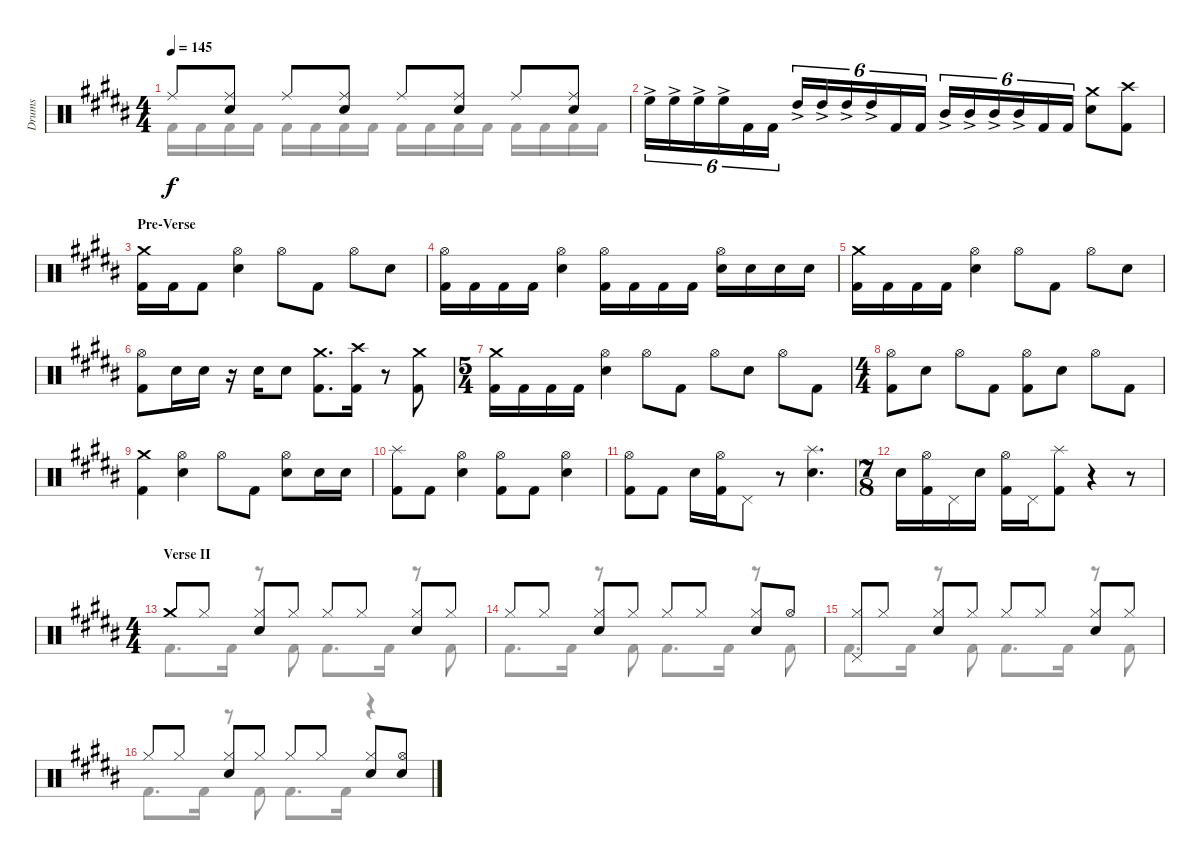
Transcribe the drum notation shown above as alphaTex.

\defaultSystemsLayout 4
\bracketExtendMode groupsimilarinstruments
\otherSystemsTrackNameOrientation horizontal
\track ("Drumkit" "Drums") {multiBarRest instrument percussion}
\staff {score}
\articulation defaults
\voice
\ts (4 4)
\tempo 145
\clef neutral
\ks b "Ride (middle)"{acc forcenatural}.8{dy f}
("Snare (hit) 2"{acc forcenatural} "Ride (middle)"{acc forcenatural}).8 "Ride (middle)"{acc forcenatural}.8 ("Snare (hit) 2"{acc forcenatural} "Ride (middle)"{acc forcenatural}).8 "Ride (middle)"{acc forcenatural}.8 ("Snare (hit) 2"{acc forcenatural} "Ride (middle)"{acc forcenatural}).8 "Ride (middle)"{acc forcenatural}.8 ("Snare (hit) 2"{acc forcenatural} "Ride (middle)"{acc forcenatural}).8 |
"High Floor Tom (hit)"{ac acc forcenatural}.16{tu (6 4)} "High Floor Tom (hit)"{ac acc forcenatural}.16{tu (6 4)} "High Floor Tom (hit)"{ac acc forcenatural}.16{tu (6 4)} "High Floor Tom (hit)"{ac acc forcenatural}.16{tu (6 4)} "Kick (hit) 2"{acc forcenatural}.16{tu (6 4)} "Kick (hit) 2"{acc forcenatural}.16{tu (6 4)} "High Tom (hit)"{ac acc forcenatural}.16{tu (6 4)} "High Tom (hit)"{ac acc forcenatural}.16{tu (6 4)} "High Tom (hit)"{ac acc forcenatural}.16{tu (6 4)} "High Tom (hit)"{ac acc forcenatural}.16{tu (6 4)} "Kick (hit) 2"{acc forcenatural}.16{tu (6 4)} "Kick (hit) 2"{acc forcenatural}.16{tu (6 4)} "Mid Tom (hit)"{ac acc forcenatural}.16{tu (6 4)} "Mid Tom (hit)"{ac acc forcenatural}.16{tu (6 4)} "Mid Tom (hit)"{ac acc forcenatural}.16{tu (6 4)} "Mid Tom (hit)"{ac acc forcenatural}.16{tu (6 4)} "Kick (hit) 2"{acc forcenatural}.16{tu (6 4)} "Kick (hit) 2"{acc forcenatural}.16{tu (6 4)} ("Snare (hit) 2"{acc forcenatural} "Crash medium (hit)"{acc forcenatural}).8 ("Crash high (hit)"{acc forcenatural} "Kick (hit) 2"{acc forcenatural}).8 |
\section ("" "Pre-Verse")
("Kick (hit) 2"{acc forcenatural} "Crash medium (hit)"{acc forcenatural}).16 "Kick (hit) 2"{acc forcenatural}.16 "Kick (hit) 2"{acc forcenatural}.8 ("Hi-Hat (open)"{acc forcenatural} "Snare (hit) 2"{acc forcenatural}).4 "Hi-Hat (open)"{acc forcenatural}.8 "Kick (hit) 2"{acc forcenatural}.8 "Hi-Hat (open)"{acc forcenatural}.8 "Snare (hit) 2"{acc forcenatural}.8 |
("Hi-Hat (open)"{acc forcenatural} "Kick (hit) 2"{acc forcenatural}).16 "Kick (hit) 2"{acc forcenatural}.16 "Kick (hit) 2"{acc forcenatural}.16 "Kick (hit) 2"{acc forcenatural}.16 ("Snare (hit) 2"{acc forcenatural} "Hi-Hat (open)"{acc forcenatural}).4 ("Kick (hit) 2"{acc forcenatural} "Hi-Hat (open)"{acc forcenatural}).16 "Kick (hit) 2"{acc forcenatural}.16 "Kick (hit) 2"{acc forcenatural}.16 "Kick (hit) 2"{acc forcenatural}.16 ("Snare (hit) 2"{acc forcenatural} "Hi-Hat (open)"{acc forcenatural}).16 "Snare (hit) 2"{acc forcenatural}.16 "Snare (hit) 2"{acc forcenatural}.16 "Snare (hit) 2"{acc forcenatural}.16 |
("Kick (hit) 2"{acc forcenatural} "Crash medium (hit)"{acc forcenatural}).16 "Kick (hit) 2"{acc forcenatural}.16 "Kick (hit) 2"{acc forcenatural}.16 "Kick (hit) 2"{acc forcenatural}.16 ("Hi-Hat (open)"{acc forcenatural} "Snare (hit) 2"{acc forcenatural}).4 "Hi-Hat (open)"{acc forcenatural}.8 "Kick (hit) 2"{acc forcenatural}.8 "Hi-Hat (open)"{acc forcenatural}.8 "Snare (hit) 2"{acc forcenatural}.8 |
("Hi-Hat (open)"{acc forcenatural} "Kick (hit) 2"{acc forcenatural}).8 "Snare (hit) 2"{acc forcenatural}.16 "Snare (hit) 2"{acc forcenatural}.16 r.16 "Snare (hit) 2"{acc forcenatural}.16 "Snare (hit) 2"{acc forcenatural}.8 ("Kick (hit) 2"{acc forcenatural} "Crash medium (hit)"{acc forcenatural}).8{d} ("Kick (hit) 2"{acc forcenatural} "Crash high (hit)"{acc forcenatural}).16 r.8 ("Kick (hit) 2"{acc forcenatural} "Crash medium (hit)"{acc forcenatural}).8 |
\ts (5 4)
\beaming (8 2 2 2 2 2)
("Kick (hit) 2"{acc forcenatural} "Crash medium (hit)"{acc forcenatural}).16 "Kick (hit) 2"{acc forcenatural}.16 "Kick (hit) 2"{acc forcenatural}.16 "Kick (hit) 2"{acc forcenatural}.16 ("Hi-Hat (open)"{acc forcenatural} "Snare (hit) 2"{acc forcenatural}).4 "Hi-Hat (open)"{acc forcenatural}.8 "Kick (hit) 2"{acc forcenatural}.8 "Hi-Hat (open)"{acc forcenatural}.8 "Snare (hit) 2"{acc forcenatural}.8 "Hi-Hat (open)"{acc forcenatural}.8 "Kick (hit) 2"{acc forcenatural}.8 |
\ts (4 4)
("Kick (hit) 2"{acc forcenatural} "Hi-Hat (open)"{acc forcenatural}).8 "Snare (hit) 2"{acc forcenatural}.8 "Hi-Hat (open)"{acc forcenatural}.8 "Kick (hit) 2"{acc forcenatural}.8 ("Kick (hit) 2"{acc forcenatural} "Hi-Hat (open)"{acc forcenatural}).8 "Snare (hit) 2"{acc forcenatural}.8 "Hi-Hat (open)"{acc forcenatural}.8 "Kick (hit) 2"{acc forcenatural}.8 |
("Crash medium (hit)"{acc forcenatural} "Kick (hit) 2"{acc forcenatural}).4 ("Hi-Hat (open)"{acc forcenatural} "Snare (hit) 2"{acc forcenatural}).4 "Hi-Hat (open)"{acc forcenatural}.8 "Kick (hit) 2"{acc forcenatural}.8 ("Hi-Hat (open)"{acc forcenatural} "Snare (hit) 2"{acc forcenatural}).8 "Snare (hit) 2"{acc forcenatural}.16 "Snare (hit) 2"{acc forcenatural}.16 |
("Kick (hit) 2"{acc forcenatural} "Splash (hit)"{acc forcenatural}).8 "Kick (hit) 2"{acc forcenatural}.8 ("Snare (hit) 2"{acc forcenatural} "Hi-Hat (open)"{acc forcenatural}).4 ("Kick (hit) 2"{acc forcenatural} "Hi-Hat (open)"{acc forcenatural}).8 "Kick (hit) 2"{acc forcenatural}.8 ("Snare (hit) 2"{acc forcenatural} "Hi-Hat (open)"{acc forcenatural}).4 |
("Kick (hit) 2"{acc forcenatural} "Hi-Hat (open)"{acc forcenatural}).8 "Kick (hit) 2"{acc forcenatural}.8 "Snare (hit) 2"{acc forcenatural}.16 ("Kick (hit) 2"{acc forcenatural} "Hi-Hat (open)"{acc forcenatural}).16 "Pedal Hi-Hat (hit)"{acc forcenatural}.8 r.8 ("Snare (hit) 2"{acc forcenatural} "Splash (hit)"{acc forcenatural}).4{d} |
\ts (7 8)
"Snare (hit) 2"{acc forcenatural}.16 ("Kick (hit) 2"{acc forcenatural} "Hi-Hat (open)"{acc forcenatural}).16 "Pedal Hi-Hat (hit)"{acc forcenatural}.16 "Snare (hit) 2"{acc forcenatural}.16 ("Kick (hit) 2"{acc forcenatural} "Hi-Hat (open)"{acc forcenatural}).16 "Pedal Hi-Hat (hit)"{acc forcenatural}.16 ("Kick (hit) 2"{acc forcenatural} "Splash (hit)"{acc forcenatural}).8 r.4 r.8 |
\ts (4 4)
\section ("" "Verse II")
"Crash medium (hit)"{acc forcenatural}.8 "Hi-Hat (closed)"{acc forcenatural}.8 ("Hi-Hat (closed)"{acc forcenatural} "Snare (hit) 2"{acc forcenatural}).8 "Hi-Hat (closed)"{acc forcenatural}.8 "Hi-Hat (closed)"{acc forcenatural}.8 "Hi-Hat (closed)"{acc forcenatural}.8 ("Hi-Hat (closed)"{acc forcenatural} "Snare (hit) 2"{acc forcenatural}).8 "Hi-Hat (closed)"{acc forcenatural}.8 |
"Hi-Hat (closed)"{acc forcenatural}.8 "Hi-Hat (closed)"{acc forcenatural}.8 ("Hi-Hat (closed)"{acc forcenatural} "Snare (hit) 2"{acc forcenatural}).8 "Hi-Hat (closed)"{acc forcenatural}.8 "Hi-Hat (closed)"{acc forcenatural}.8 "Hi-Hat (closed)"{acc forcenatural}.8 ("Hi-Hat (closed)"{acc forcenatural} "Snare (hit) 2"{acc forcenatural}).8 "Hi-Hat (open)"{acc forcenatural}.8 |
("Hi-Hat (closed)"{acc forcenatural} "Pedal Hi-Hat (hit)"{acc forcenatural}).8 "Hi-Hat (closed)"{acc forcenatural}.8 ("Hi-Hat (closed)"{acc forcenatural} "Snare (hit) 2"{acc forcenatural}).8 "Hi-Hat (closed)"{acc forcenatural}.8 "Hi-Hat (closed)"{acc forcenatural}.8 "Hi-Hat (closed)"{acc forcenatural}.8 ("Hi-Hat (closed)"{acc forcenatural} "Snare (hit) 2"{acc forcenatural}).8 "Hi-Hat (closed)"{acc forcenatural}.8 |
"Hi-Hat (closed)"{acc forcenatural}.8 "Hi-Hat (closed)"{acc forcenatural}.8 ("Hi-Hat (closed)"{acc forcenatural} "Snare (hit) 2"{acc forcenatural}).8 "Hi-Hat (closed)"{acc forcenatural}.8 "Hi-Hat (closed)"{acc forcenatural}.8 "Hi-Hat (closed)"{acc forcenatural}.8 ("Hi-Hat (closed)"{acc forcenatural} "Snare (hit) 2"{acc forcenatural}).8 ("Hi-Hat (open)"{acc forcenatural} "Snare (hit) 2"{acc forcenatural}).8
\voice
\clef neutral
\ottava regular
\simile none
\ks b "Kick (hit) 2"{acc forcenatural}.16{dy f} "Kick (hit) 2"{acc forcenatural}.16 "Kick (hit) 2"{acc forcenatural}.16 "Kick (hit) 2"{acc forcenatural}.16 "Kick (hit) 2"{acc forcenatural}.16 "Kick (hit) 2"{acc forcenatural}.16 "Kick (hit) 2"{acc forcenatural}.16 "Kick (hit) 2"{acc forcenatural}.16 "Kick (hit) 2"{acc forcenatural}.16 "Kick (hit) 2"{acc forcenatural}.16 "Kick (hit) 2"{acc forcenatural}.16 "Kick (hit) 2"{acc forcenatural}.16 "Kick (hit) 2"{acc forcenatural}.16 "Kick (hit) 2"{acc forcenatural}.16 "Kick (hit) 2"{acc forcenatural}.16 "Kick (hit) 2"{acc forcenatural}.16
|
|
|
|
|
|
|
|
|
|
|
|
"Kick (hit) 2"{acc forcenatural}.8{d} "Kick (hit) 2"{acc forcenatural}.16 r.8 "Kick (hit) 2"{acc forcenatural}.8 "Kick (hit) 2"{acc forcenatural}.8{d} "Kick (hit) 2"{acc forcenatural}.16 r.8 "Kick (hit) 2"{acc forcenatural}.8 |
"Kick (hit) 2"{acc forcenatural}.8{d} "Kick (hit) 2"{acc forcenatural}.16 r.8 "Kick (hit) 2"{acc forcenatural}.8 "Kick (hit) 2"{acc forcenatural}.8{d} "Kick (hit) 2"{acc forcenatural}.16 r.8 "Kick (hit) 2"{acc forcenatural}.8 |
"Kick (hit) 2"{acc forcenatural}.8{d} "Kick (hit) 2"{acc forcenatural}.16 r.8 "Kick (hit) 2"{acc forcenatural}.8 "Kick (hit) 2"{acc forcenatural}.8{d} "Kick (hit) 2"{acc forcenatural}.16 r.8 "Kick (hit) 2"{acc forcenatural}.8 |
"Kick (hit) 2"{acc forcenatural}.8{d} "Kick (hit) 2"{acc forcenatural}.16 r.8 "Kick (hit) 2"{acc forcenatural}.8 "Kick (hit) 2"{acc forcenatural}.8{d} "Kick (hit) 2"{acc forcenatural}.16 r.4
